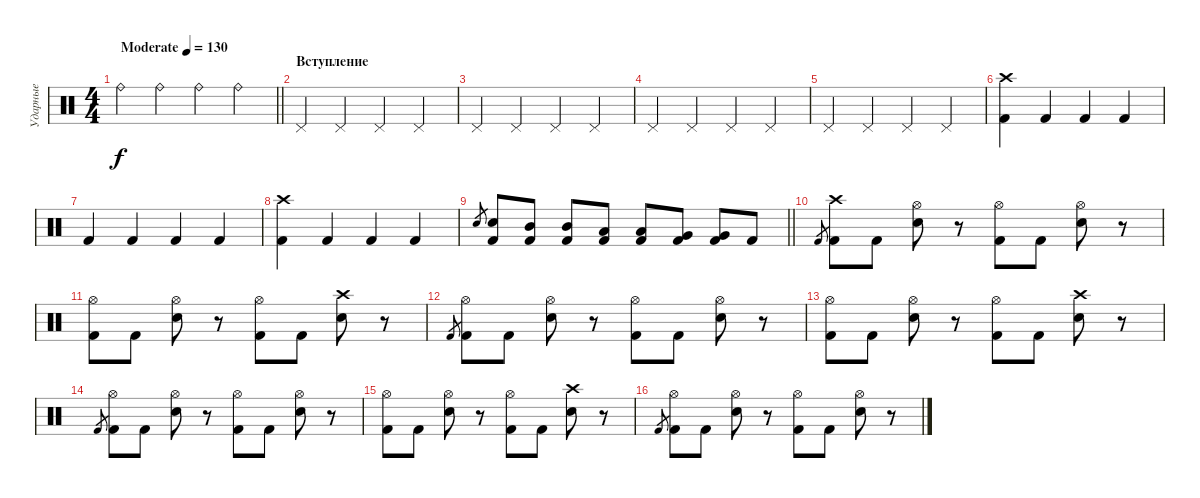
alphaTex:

\track ("Ударные" "Ударные") {instrument percussion}
\staff {score}
\articulation defaults
\ts (4 4)
\tempo (130 "Moderate")
\clef neutral
\barLineRight lightlight
\ks c "Ride (bell)".4{dy f} "Ride (bell)".4 "Ride (bell)".4 "Ride (bell)".4
|
\section ("" "Вступление")
"Pedal Hi-Hat (hit)".4 "Pedal Hi-Hat (hit)".4 "Pedal Hi-Hat (hit)".4 "Pedal Hi-Hat (hit)".4 |
"Pedal Hi-Hat (hit)".4 "Pedal Hi-Hat (hit)".4 "Pedal Hi-Hat (hit)".4 "Pedal Hi-Hat (hit)".4 |
"Pedal Hi-Hat (hit)".4 "Pedal Hi-Hat (hit)".4 "Pedal Hi-Hat (hit)".4 "Pedal Hi-Hat (hit)".4 |
"Pedal Hi-Hat (hit)".4 "Pedal Hi-Hat (hit)".4 "Pedal Hi-Hat (hit)".4 "Pedal Hi-Hat (hit)".4 |
("Crash high (hit)" "Kick (hit) 2").4 "Kick (hit) 2".4 "Kick (hit) 2".4 "Kick (hit) 2".4 |
"Kick (hit) 2".4 "Kick (hit) 2".4 "Kick (hit) 2".4 "Kick (hit) 2".4 |
("Crash high (hit)" "Kick (hit) 2").4 "Kick (hit) 2".4 "Kick (hit) 2".4 "Kick (hit) 2".4 |
\barLineRight lightlight "Snare (hit) 2".8{gr}
("Snare (hit) 2" "Kick (hit) 2").8 ("Mid Tom (hit)" "Kick (hit) 2").8 ("Mid Tom (hit)" "Kick (hit) 2").8 ("Low Tom (hit)" "Kick (hit) 2").8 ("Low Tom (hit)" "Kick (hit) 2").8 ("Very Low Tom (hit)" "Kick (hit) 2").8 ("Very Low Tom (hit)" "Kick (hit) 2").8 "Kick (hit) 2".8 |
\section ("" "")
"Kick (hit) 2".8{gr} ("Crash high (hit)" "Kick (hit) 2").8 "Kick (hit) 2".8 ("Hi-Hat (open)" "Snare (hit) 2").8 r.8 ("Hi-Hat (open)" "Kick (hit) 2").8 "Kick (hit) 2".8 ("Hi-Hat (open)" "Snare (hit) 2").8 r.8 |
("Hi-Hat (open)" "Kick (hit) 2").8 "Kick (hit) 2".8 ("Hi-Hat (open)" "Snare (hit) 2").8 r.8 ("Hi-Hat (open)" "Kick (hit) 2").8 "Kick (hit) 2".8 ("Crash high (hit)" "Snare (hit) 2").8 r.8 |
"Kick (hit) 2".8{gr} ("Hi-Hat (open)" "Kick (hit) 2").8 "Kick (hit) 2".8 ("Hi-Hat (open)" "Snare (hit) 2").8 r.8 ("Hi-Hat (open)" "Kick (hit) 2").8 "Kick (hit) 2".8 ("Hi-Hat (open)" "Snare (hit) 2").8 r.8 |
("Hi-Hat (open)" "Kick (hit) 2").8 "Kick (hit) 2".8 ("Hi-Hat (open)" "Snare (hit) 2").8 r.8 ("Hi-Hat (open)" "Kick (hit) 2").8 "Kick (hit) 2".8 ("Crash high (hit)" "Snare (hit) 2").8 r.8 |
"Kick (hit) 2".8{gr} ("Hi-Hat (open)" "Kick (hit) 2").8 "Kick (hit) 2".8 ("Hi-Hat (open)" "Snare (hit) 2").8 r.8 ("Hi-Hat (open)" "Kick (hit) 2").8 "Kick (hit) 2".8 ("Hi-Hat (open)" "Snare (hit) 2").8 r.8 |
("Hi-Hat (open)" "Kick (hit) 2").8 "Kick (hit) 2".8 ("Hi-Hat (open)" "Snare (hit) 2").8 r.8 ("Hi-Hat (open)" "Kick (hit) 2").8 "Kick (hit) 2".8 ("Crash high (hit)" "Snare (hit) 2").8 r.8 |
"Kick (hit) 2".8{gr} ("Hi-Hat (open)" "Kick (hit) 2").8 "Kick (hit) 2".8 ("Hi-Hat (open)" "Snare (hit) 2").8 r.8 ("Hi-Hat (open)" "Kick (hit) 2").8 "Kick (hit) 2".8 ("Hi-Hat (open)" "Snare (hit) 2").8 r.8
